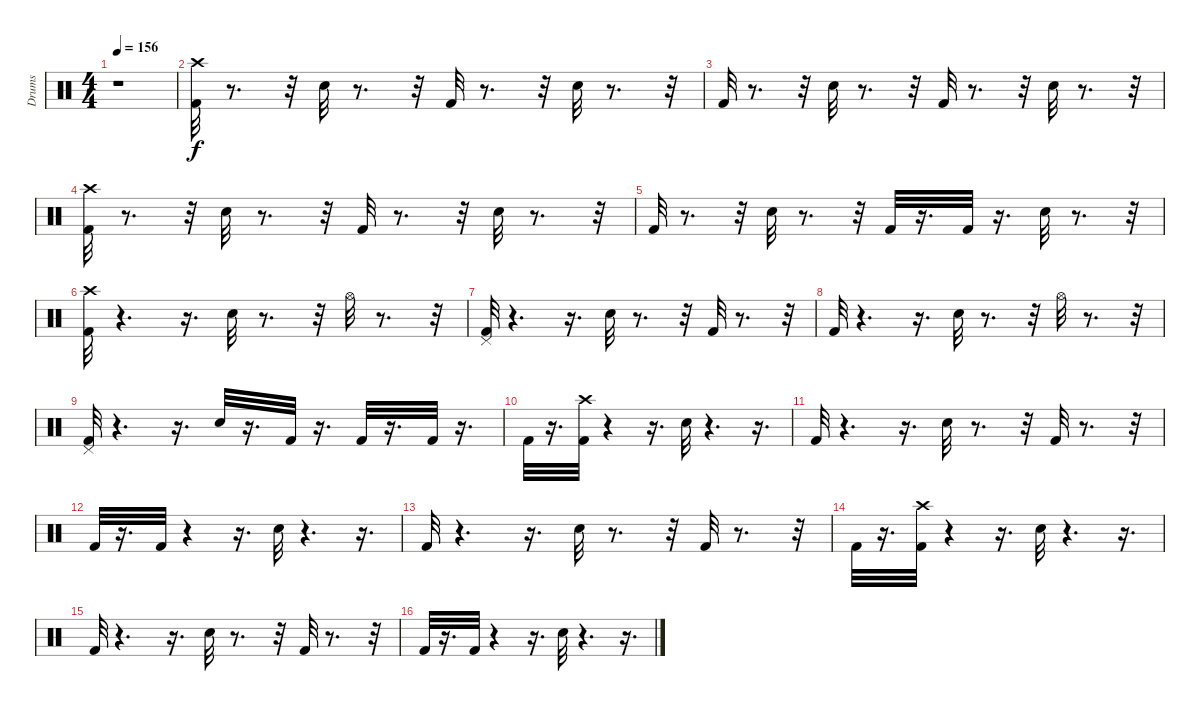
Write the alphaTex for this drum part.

\track ("Drums" "Drums") {instrument percussion}
\staff {score}
\articulation defaults
\ts (4 4)
\tempo 156
\clef neutral
\ks c
r.1{dy f} |
("Crash high (hit)" "Kick (hit) 2").32 r.8{d} r.32 "Snare (hit) 2".32 r.8{d} r.32 "Kick (hit) 2".32 r.8{d} r.32 "Snare (hit) 2".32 r.8{d} r.32 |
"Kick (hit) 2".32 r.8{d} r.32 "Snare (hit) 2".32 r.8{d} r.32 "Kick (hit) 2".32 r.8{d} r.32 "Snare (hit) 2".32 r.8{d} r.32 |
("Crash high (hit)" "Kick (hit) 2").32 r.8{d} r.32 "Snare (hit) 2".32 r.8{d} r.32 "Kick (hit) 2".32 r.8{d} r.32 "Snare (hit) 2".32 r.8{d} r.32 |
"Kick (hit) 2".32 r.8{d} r.32 "Snare (hit) 2".32 r.8{d} r.32 "Kick (hit) 2".32 r.16{d} "Kick (hit) 2".32 r.16{d} "Snare (hit) 2".32 r.8{d} r.32 |
("Crash high (hit)" "Kick (hit) 2").32 r.4{d} r.16{d} "Snare (hit) 2".32 r.8{d} r.32 "Hi-Hat (open)".32 r.8{d} r.32 |
("Pedal Hi-Hat (hit)" "Kick (hit) 2").32 r.4{d} r.16{d} "Snare (hit) 2".32 r.8{d} r.32 "Kick (hit) 2".32 r.8{d} r.32 |
"Kick (hit) 2".32 r.4{d} r.16{d} "Snare (hit) 2".32 r.8{d} r.32 "Hi-Hat (open)".32 r.8{d} r.32 |
("Kick (hit) 2" "Pedal Hi-Hat (hit)").32 r.4{d} r.16{d} "Snare (hit) 2".32 r.16{d} "Kick (hit) 2".32 r.16{d} "Kick (hit) 2".32 r.16{d} "Kick (hit) 2".32 r.16{d} |
"Kick (hit) 2".32 r.16{d} ("Crash high (hit)" "Kick (hit) 2").32 r.4 r.16{d} "Snare (hit) 2".32 r.4{d} r.16{d} |
"Kick (hit) 2".32 r.4{d} r.16{d} "Snare (hit) 2".32 r.8{d} r.32 "Kick (hit) 2".32 r.8{d} r.32 |
"Kick (hit) 2".32 r.16{d} "Kick (hit) 2".32 r.4 r.16{d} "Snare (hit) 2".32 r.4{d} r.16{d} |
"Kick (hit) 2".32 r.4{d} r.16{d} "Snare (hit) 2".32 r.8{d} r.32 "Kick (hit) 2".32 r.8{d} r.32 |
"Kick (hit) 2".32 r.16{d} ("Crash high (hit)" "Kick (hit) 2").32 r.4 r.16{d} "Snare (hit) 2".32 r.4{d} r.16{d} |
"Kick (hit) 2".32 r.4{d} r.16{d} "Snare (hit) 2".32 r.8{d} r.32 "Kick (hit) 2".32 r.8{d} r.32 |
"Kick (hit) 2".32 r.16{d} "Kick (hit) 2".32 r.4 r.16{d} "Snare (hit) 2".32 r.4{d} r.16{d}
